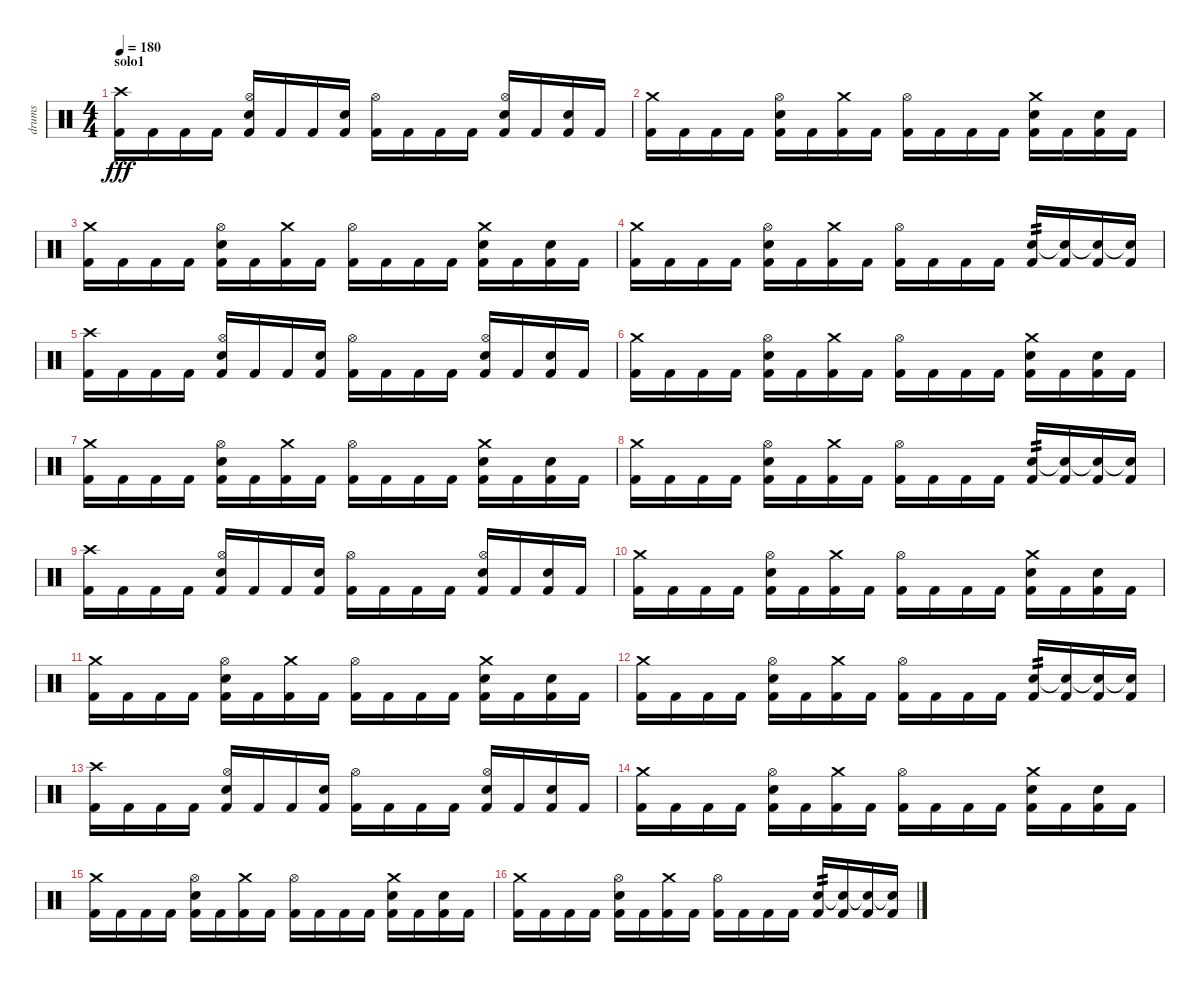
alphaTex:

\track ("drums" "drums") {instrument percussion}
\staff {score}
\articulation defaults
\ts (4 4)
\section ("" "solo1")
\tempo 180
\clef neutral
\ks c
("Crash high (hit)" "Kick (hit) 2").16{dy fff} "Kick (hit) 2".16 "Kick (hit) 2".16 "Kick (hit) 2".16 ("Hi-Hat (open)" "Snare (hit) 2" "Kick (hit) 2").16 "Kick (hit) 2".16 "Kick (hit) 2".16 ("Snare (hit) 2" "Kick (hit) 2").16 ("Hi-Hat (open)" "Kick (hit) 2").16 "Kick (hit) 2".16 "Kick (hit) 2".16 "Kick (hit) 2".16 ("Hi-Hat (open)" "Snare (hit) 2" "Kick (hit) 2").16 "Kick (hit) 2".16 ("Snare (hit) 2" "Kick (hit) 2").16 "Kick (hit) 2".16 |
("Crash medium (hit)" "Kick (hit) 2").16 "Kick (hit) 2".16 "Kick (hit) 2".16 "Kick (hit) 2".16 ("Hi-Hat (open)" "Snare (hit) 2" "Kick (hit) 2").16 "Kick (hit) 2".16 ("Crash medium (hit)" "Kick (hit) 2").16 "Kick (hit) 2".16 ("Hi-Hat (open)" "Kick (hit) 2").16 "Kick (hit) 2".16 "Kick (hit) 2".16 "Kick (hit) 2".16 ("Crash medium (hit)" "Snare (hit) 2" "Kick (hit) 2").16 "Kick (hit) 2".16 ("Snare (hit) 2" "Kick (hit) 2").16 "Kick (hit) 2".16 |
("Crash medium (hit)" "Kick (hit) 2").16 "Kick (hit) 2".16 "Kick (hit) 2".16 "Kick (hit) 2".16 ("Hi-Hat (open)" "Snare (hit) 2" "Kick (hit) 2").16 "Kick (hit) 2".16 ("Crash medium (hit)" "Kick (hit) 2").16 "Kick (hit) 2".16 ("Hi-Hat (open)" "Kick (hit) 2").16 "Kick (hit) 2".16 "Kick (hit) 2".16 "Kick (hit) 2".16 ("Crash medium (hit)" "Snare (hit) 2" "Kick (hit) 2").16 "Kick (hit) 2".16 ("Snare (hit) 2" "Kick (hit) 2").16 "Kick (hit) 2".16 |
("Crash medium (hit)" "Kick (hit) 2").16 "Kick (hit) 2".16 "Kick (hit) 2".16 "Kick (hit) 2".16 ("Hi-Hat (open)" "Snare (hit) 2" "Kick (hit) 2").16 "Kick (hit) 2".16 ("Crash medium (hit)" "Kick (hit) 2").16 "Kick (hit) 2".16 ("Hi-Hat (open)" "Kick (hit) 2").16 "Kick (hit) 2".16 "Kick (hit) 2".16 "Kick (hit) 2".16 ("Snare (hit) 2" "Kick (hit) 2").16{tp 2} ("Snare (hit)"{t} "Kick (hit) 2").16 ("Snare (hit) 2"{t} "Kick (hit) 2").16 ("Snare (hit)"{t} "Kick (hit) 2").16 |
("Crash high (hit)" "Kick (hit) 2").16 "Kick (hit) 2".16 "Kick (hit) 2".16 "Kick (hit) 2".16 ("Hi-Hat (open)" "Snare (hit) 2" "Kick (hit) 2").16 "Kick (hit) 2".16 "Kick (hit) 2".16 ("Snare (hit) 2" "Kick (hit) 2").16 ("Hi-Hat (open)" "Kick (hit) 2").16 "Kick (hit) 2".16 "Kick (hit) 2".16 "Kick (hit) 2".16 ("Hi-Hat (open)" "Snare (hit) 2" "Kick (hit) 2").16 "Kick (hit) 2".16 ("Snare (hit) 2" "Kick (hit) 2").16 "Kick (hit) 2".16 |
("Crash medium (hit)" "Kick (hit) 2").16 "Kick (hit) 2".16 "Kick (hit) 2".16 "Kick (hit) 2".16 ("Hi-Hat (open)" "Snare (hit) 2" "Kick (hit) 2").16 "Kick (hit) 2".16 ("Crash medium (hit)" "Kick (hit) 2").16 "Kick (hit) 2".16 ("Hi-Hat (open)" "Kick (hit) 2").16 "Kick (hit) 2".16 "Kick (hit) 2".16 "Kick (hit) 2".16 ("Crash medium (hit)" "Snare (hit) 2" "Kick (hit) 2").16 "Kick (hit) 2".16 ("Snare (hit) 2" "Kick (hit) 2").16 "Kick (hit) 2".16 |
("Crash medium (hit)" "Kick (hit) 2").16 "Kick (hit) 2".16 "Kick (hit) 2".16 "Kick (hit) 2".16 ("Hi-Hat (open)" "Snare (hit) 2" "Kick (hit) 2").16 "Kick (hit) 2".16 ("Crash medium (hit)" "Kick (hit) 2").16 "Kick (hit) 2".16 ("Hi-Hat (open)" "Kick (hit) 2").16 "Kick (hit) 2".16 "Kick (hit) 2".16 "Kick (hit) 2".16 ("Crash medium (hit)" "Snare (hit) 2" "Kick (hit) 2").16 "Kick (hit) 2".16 ("Snare (hit) 2" "Kick (hit) 2").16 "Kick (hit) 2".16 |
("Crash medium (hit)" "Kick (hit) 2").16 "Kick (hit) 2".16 "Kick (hit) 2".16 "Kick (hit) 2".16 ("Hi-Hat (open)" "Snare (hit) 2" "Kick (hit) 2").16 "Kick (hit) 2".16 ("Crash medium (hit)" "Kick (hit) 2").16 "Kick (hit) 2".16 ("Hi-Hat (open)" "Kick (hit) 2").16 "Kick (hit) 2".16 "Kick (hit) 2".16 "Kick (hit) 2".16 ("Snare (hit) 2" "Kick (hit) 2").16{tp 2} ("Snare (hit)"{t} "Kick (hit) 2").16 ("Snare (hit) 2"{t} "Kick (hit) 2").16 ("Snare (hit)"{t} "Kick (hit) 2").16 |
("Crash high (hit)" "Kick (hit) 2").16 "Kick (hit) 2".16 "Kick (hit) 2".16 "Kick (hit) 2".16 ("Hi-Hat (open)" "Snare (hit) 2" "Kick (hit) 2").16 "Kick (hit) 2".16 "Kick (hit) 2".16 ("Snare (hit) 2" "Kick (hit) 2").16 ("Hi-Hat (open)" "Kick (hit) 2").16 "Kick (hit) 2".16 "Kick (hit) 2".16 "Kick (hit) 2".16 ("Hi-Hat (open)" "Snare (hit) 2" "Kick (hit) 2").16 "Kick (hit) 2".16 ("Snare (hit) 2" "Kick (hit) 2").16 "Kick (hit) 2".16 |
("Crash medium (hit)" "Kick (hit) 2").16 "Kick (hit) 2".16 "Kick (hit) 2".16 "Kick (hit) 2".16 ("Hi-Hat (open)" "Snare (hit) 2" "Kick (hit) 2").16 "Kick (hit) 2".16 ("Crash medium (hit)" "Kick (hit) 2").16 "Kick (hit) 2".16 ("Hi-Hat (open)" "Kick (hit) 2").16 "Kick (hit) 2".16 "Kick (hit) 2".16 "Kick (hit) 2".16 ("Crash medium (hit)" "Snare (hit) 2" "Kick (hit) 2").16 "Kick (hit) 2".16 ("Snare (hit) 2" "Kick (hit) 2").16 "Kick (hit) 2".16 |
("Crash medium (hit)" "Kick (hit) 2").16 "Kick (hit) 2".16 "Kick (hit) 2".16 "Kick (hit) 2".16 ("Hi-Hat (open)" "Snare (hit) 2" "Kick (hit) 2").16 "Kick (hit) 2".16 ("Crash medium (hit)" "Kick (hit) 2").16 "Kick (hit) 2".16 ("Hi-Hat (open)" "Kick (hit) 2").16 "Kick (hit) 2".16 "Kick (hit) 2".16 "Kick (hit) 2".16 ("Crash medium (hit)" "Snare (hit) 2" "Kick (hit) 2").16 "Kick (hit) 2".16 ("Snare (hit) 2" "Kick (hit) 2").16 "Kick (hit) 2".16 |
("Crash medium (hit)" "Kick (hit) 2").16 "Kick (hit) 2".16 "Kick (hit) 2".16 "Kick (hit) 2".16 ("Hi-Hat (open)" "Snare (hit) 2" "Kick (hit) 2").16 "Kick (hit) 2".16 ("Crash medium (hit)" "Kick (hit) 2").16 "Kick (hit) 2".16 ("Hi-Hat (open)" "Kick (hit) 2").16 "Kick (hit) 2".16 "Kick (hit) 2".16 "Kick (hit) 2".16 ("Snare (hit) 2" "Kick (hit) 2").16{tp 2} ("Snare (hit)"{t} "Kick (hit) 2").16 ("Snare (hit) 2"{t} "Kick (hit) 2").16 ("Snare (hit)"{t} "Kick (hit) 2").16 |
("Crash high (hit)" "Kick (hit) 2").16 "Kick (hit) 2".16 "Kick (hit) 2".16 "Kick (hit) 2".16 ("Hi-Hat (open)" "Snare (hit) 2" "Kick (hit) 2").16 "Kick (hit) 2".16 "Kick (hit) 2".16 ("Snare (hit) 2" "Kick (hit) 2").16 ("Hi-Hat (open)" "Kick (hit) 2").16 "Kick (hit) 2".16 "Kick (hit) 2".16 "Kick (hit) 2".16 ("Hi-Hat (open)" "Snare (hit) 2" "Kick (hit) 2").16 "Kick (hit) 2".16 ("Snare (hit) 2" "Kick (hit) 2").16 "Kick (hit) 2".16 |
("Crash medium (hit)" "Kick (hit) 2").16 "Kick (hit) 2".16 "Kick (hit) 2".16 "Kick (hit) 2".16 ("Hi-Hat (open)" "Snare (hit) 2" "Kick (hit) 2").16 "Kick (hit) 2".16 ("Crash medium (hit)" "Kick (hit) 2").16 "Kick (hit) 2".16 ("Hi-Hat (open)" "Kick (hit) 2").16 "Kick (hit) 2".16 "Kick (hit) 2".16 "Kick (hit) 2".16 ("Crash medium (hit)" "Snare (hit) 2" "Kick (hit) 2").16 "Kick (hit) 2".16 ("Snare (hit) 2" "Kick (hit) 2").16 "Kick (hit) 2".16 |
("Crash medium (hit)" "Kick (hit) 2").16 "Kick (hit) 2".16 "Kick (hit) 2".16 "Kick (hit) 2".16 ("Hi-Hat (open)" "Snare (hit) 2" "Kick (hit) 2").16 "Kick (hit) 2".16 ("Crash medium (hit)" "Kick (hit) 2").16 "Kick (hit) 2".16 ("Hi-Hat (open)" "Kick (hit) 2").16 "Kick (hit) 2".16 "Kick (hit) 2".16 "Kick (hit) 2".16 ("Crash medium (hit)" "Snare (hit) 2" "Kick (hit) 2").16 "Kick (hit) 2".16 ("Snare (hit) 2" "Kick (hit) 2").16 "Kick (hit) 2".16 |
("Crash medium (hit)" "Kick (hit) 2").16 "Kick (hit) 2".16 "Kick (hit) 2".16 "Kick (hit) 2".16 ("Hi-Hat (open)" "Snare (hit) 2" "Kick (hit) 2").16 "Kick (hit) 2".16 ("Crash medium (hit)" "Kick (hit) 2").16 "Kick (hit) 2".16 ("Hi-Hat (open)" "Kick (hit) 2").16 "Kick (hit) 2".16 "Kick (hit) 2".16 "Kick (hit) 2".16 ("Snare (hit) 2" "Kick (hit) 2").16{tp 2} ("Snare (hit)"{t} "Kick (hit) 2").16 ("Snare (hit) 2"{t} "Kick (hit) 2").16 ("Snare (hit)"{t} "Kick (hit) 2").16
